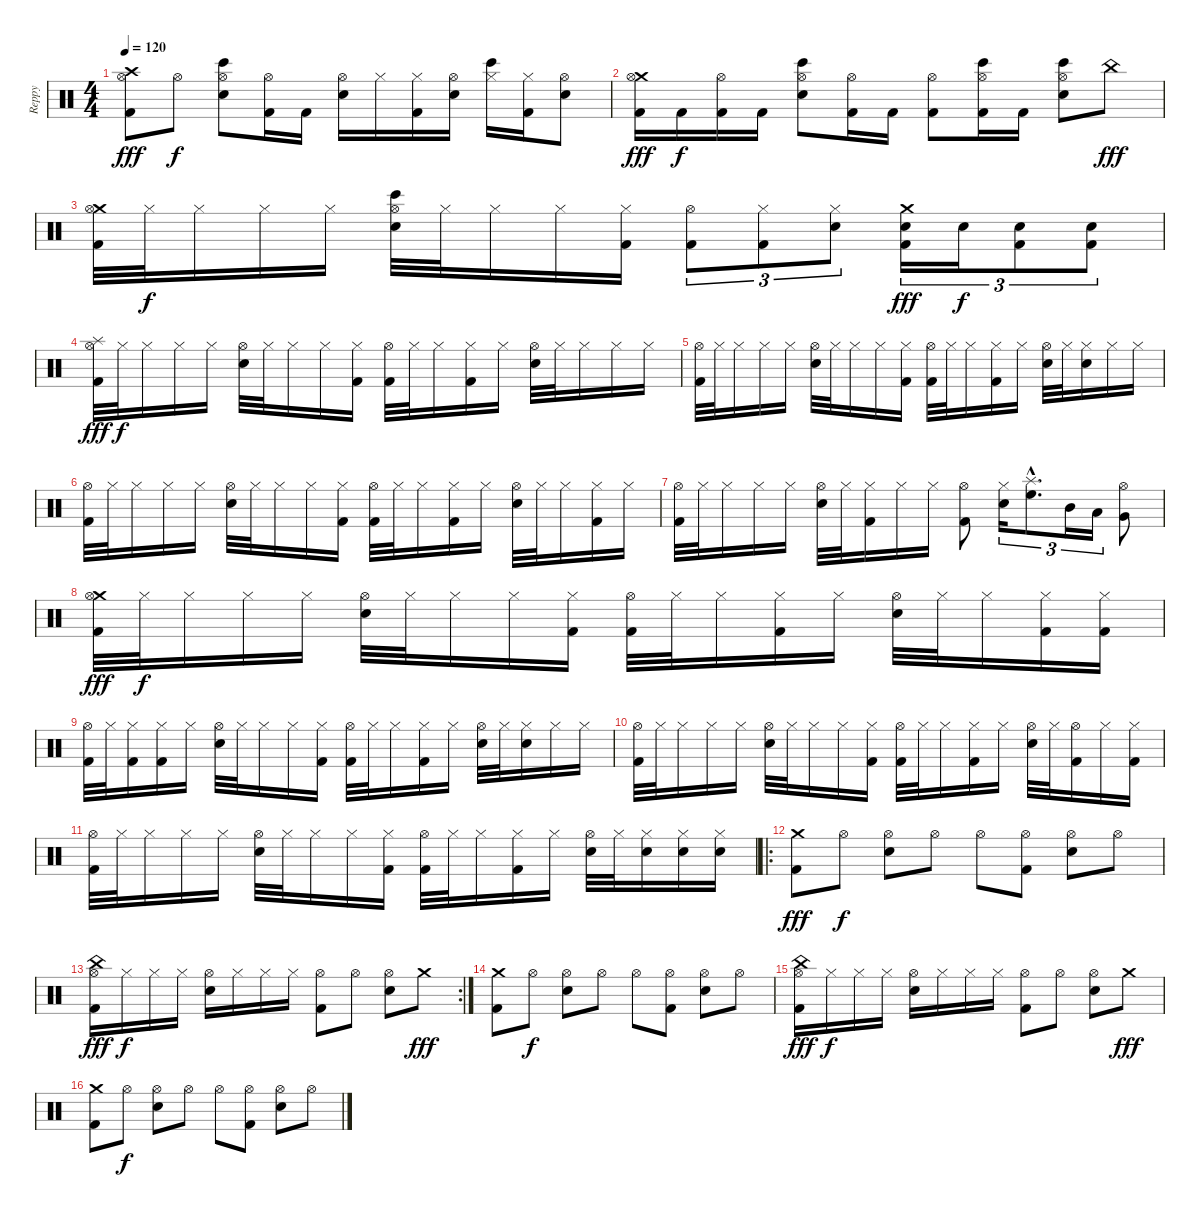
\track ("Reppy" "Reppy") {instrument percussion}
\staff {score}
\articulation defaults
\ts (4 4)
\tempo 120
\clef neutral
\ks c
("Crash high (hit)" "Hi-Hat (open)" "Kick (hit) 2").8{dy fff} "Hi-Hat (open)".8{dy f} ("Bongo High (hit)" "Hi-Hat (open)" "Electric Snare (hit)").8 ("Hi-Hat (open)" "Kick (hit) 2").16 "Kick (hit) 2".16 ("Hi-Hat (open)" "Electric Snare (hit)").16 "Hi-Hat (closed)".16 ("Hi-Hat (closed)" "Kick (hit) 2").16 ("Hi-Hat (open)" "Electric Snare (hit)").16 ("Bongo High (hit)" "Hi-Hat (closed)").16 ("Hi-Hat (closed)" "Kick (hit) 2").16 ("Hi-Hat (open)" "Electric Snare (hit)").8 |
("Crash medium (hit)" "Hi-Hat (open)" "Kick (hit) 2").16{dy fff} "Kick (hit) 2".16{dy f} ("Hi-Hat (open)" "Kick (hit) 2").16 "Kick (hit) 2".16 ("Bongo High (hit)" "Hi-Hat (open)" "Electric Snare (hit)").8 ("Hi-Hat (open)" "Kick (hit) 2").16 "Kick (hit) 2".16 ("Hi-Hat (open)" "Kick (hit) 2").8 ("Bongo High (hit)" "Hi-Hat (open)" "Kick (hit) 2").16 "Kick (hit) 2".16 ("Bongo High (hit)" "Hi-Hat (open)" "Electric Snare (hit)").8 "China (hit)".8{dy fff} |
("Crash medium (hit)" "Hi-Hat (open)" "Kick (hit) 2").32 "Hi-Hat (closed)".32{dy f} "Hi-Hat (closed)".16 "Hi-Hat (closed)".16 "Hi-Hat (closed)".16 ("Bongo High (hit)" "Hi-Hat (open)" "Electric Snare (hit)").32 "Hi-Hat (closed)".32 "Hi-Hat (closed)".16 "Hi-Hat (closed)".16 ("Hi-Hat (closed)" "Kick (hit) 2").16 ("Hi-Hat (open)" "Kick (hit) 2").8{tu (3 2)} ("Hi-Hat (closed)" "Kick (hit) 2").8{tu (3 2)} ("Hi-Hat (closed)" "Electric Snare (hit)").8{tu (3 2)} ("Crash medium (hit)" "Electric Snare (hit)" "Kick (hit) 2").16{tu (3 2) dy fff} "Electric Snare (hit)".16{tu (3 2) dy f} ("Electric Snare (hit)" "Kick (hit) 2").8{tu (3 2)} ("Electric Snare (hit)" "Kick (hit) 2").8{tu (3 2)} |
("Splash (hit)" "Hi-Hat (open)" "Kick (hit) 2").32{dy fff} "Hi-Hat (closed)".32{dy f} "Hi-Hat (closed)".16 "Hi-Hat (closed)".16 "Hi-Hat (closed)".16 ("Hi-Hat (open)" "Electric Snare (hit)").32 "Hi-Hat (closed)".32 "Hi-Hat (closed)".16 "Hi-Hat (closed)".16 ("Hi-Hat (closed)" "Kick (hit) 2").16 ("Hi-Hat (open)" "Kick (hit) 2").32 "Hi-Hat (closed)".32 "Hi-Hat (closed)".16 ("Hi-Hat (closed)" "Kick (hit) 2").16 "Hi-Hat (closed)".16 ("Hi-Hat (open)" "Electric Snare (hit)").32 "Hi-Hat (closed)".32 "Hi-Hat (closed)".16 "Hi-Hat (closed)".16 "Hi-Hat (closed)".16 |
("Hi-Hat (open)" "Kick (hit) 2").32 "Hi-Hat (closed)".32 "Hi-Hat (closed)".16 "Hi-Hat (closed)".16 "Hi-Hat (closed)".16 ("Hi-Hat (open)" "Electric Snare (hit)").32 "Hi-Hat (closed)".32 "Hi-Hat (closed)".16 "Hi-Hat (closed)".16 ("Hi-Hat (closed)" "Kick (hit) 2").16 ("Hi-Hat (open)" "Kick (hit) 2").32 "Hi-Hat (closed)".32 "Hi-Hat (closed)".16 ("Hi-Hat (closed)" "Kick (hit) 2").16 "Hi-Hat (closed)".16 ("Hi-Hat (open)" "Electric Snare (hit)").32 "Hi-Hat (closed)".32 ("Hi-Hat (closed)" "Electric Snare (hit)").16 "Hi-Hat (closed)".16 "Hi-Hat (closed)".16 |
("Hi-Hat (open)" "Kick (hit) 2").32 "Hi-Hat (closed)".32 "Hi-Hat (closed)".16 "Hi-Hat (closed)".16 "Hi-Hat (closed)".16 ("Hi-Hat (open)" "Electric Snare (hit)").32 "Hi-Hat (closed)".32 "Hi-Hat (closed)".16 "Hi-Hat (closed)".16 ("Hi-Hat (closed)" "Kick (hit) 2").16 ("Hi-Hat (open)" "Kick (hit) 2").32 "Hi-Hat (closed)".32 "Hi-Hat (closed)".16 ("Hi-Hat (closed)" "Kick (hit) 2").16 "Hi-Hat (closed)".16 ("Hi-Hat (open)" "Electric Snare (hit)").32 "Hi-Hat (closed)".32 "Hi-Hat (closed)".16 ("Hi-Hat (closed)" "Kick (hit) 2").16 "Hi-Hat (closed)".16 |
("Hi-Hat (open)" "Kick (hit) 2").32 "Hi-Hat (closed)".32 "Hi-Hat (closed)".16 "Hi-Hat (closed)".16 "Hi-Hat (closed)".16 ("Hi-Hat (open)" "Electric Snare (hit)").32 "Hi-Hat (closed)".32 ("Hi-Hat (closed)" "Kick (hit) 2").16 "Hi-Hat (closed)".16 "Hi-Hat (closed)".16 ("Hi-Hat (open)" "Kick (hit) 2").8 ("Hi-Hat (closed)" "Electric Snare (hit)").16{tu (3 2)} ("Splash (hit)"{hac} "High Floor Tom (hit)"{hac}).8{d tu (3 2)} "Mid Tom (hit)".16{tu (3 2)} "Low Tom (hit)".16{tu (3 2)} ("Hi-Hat (open)" "Very Low Tom (hit)").8 |
("Crash medium (hit)" "Hi-Hat (open)" "Kick (hit) 2").32{dy fff} "Hi-Hat (closed)".32{dy f} "Hi-Hat (closed)".16 "Hi-Hat (closed)".16 "Hi-Hat (closed)".16 ("Hi-Hat (open)" "Electric Snare (hit)").32 "Hi-Hat (closed)".32 "Hi-Hat (closed)".16 "Hi-Hat (closed)".16 ("Hi-Hat (closed)" "Kick (hit) 2").16 ("Hi-Hat (open)" "Kick (hit) 2").32 "Hi-Hat (closed)".32 "Hi-Hat (closed)".16 ("Hi-Hat (closed)" "Kick (hit) 2").16 "Hi-Hat (closed)".16 ("Hi-Hat (open)" "Electric Snare (hit)").32 "Hi-Hat (closed)".32 "Hi-Hat (closed)".16 ("Hi-Hat (closed)" "Kick (hit) 2").16 ("Hi-Hat (closed)" "Kick (hit) 2").16 |
("Hi-Hat (open)" "Kick (hit) 2").32 "Hi-Hat (closed)".32 ("Hi-Hat (closed)" "Kick (hit) 2").16 ("Hi-Hat (closed)" "Kick (hit) 2").16 "Hi-Hat (closed)".16 ("Hi-Hat (open)" "Electric Snare (hit)").32 "Hi-Hat (closed)".32 "Hi-Hat (closed)".16 "Hi-Hat (closed)".16 ("Hi-Hat (closed)" "Kick (hit) 2").16 ("Hi-Hat (open)" "Kick (hit) 2").32 "Hi-Hat (closed)".32 "Hi-Hat (closed)".16 ("Hi-Hat (closed)" "Kick (hit) 2").16 "Hi-Hat (closed)".16 ("Hi-Hat (open)" "Electric Snare (hit)").32 "Hi-Hat (closed)".32 ("Hi-Hat (closed)" "Electric Snare (hit)").16 "Hi-Hat (closed)".16 "Hi-Hat (closed)".16 |
("Hi-Hat (open)" "Kick (hit) 2").32 "Hi-Hat (closed)".32 "Hi-Hat (closed)".16 "Hi-Hat (closed)".16 "Hi-Hat (closed)".16 ("Hi-Hat (open)" "Electric Snare (hit)").32 "Hi-Hat (closed)".32 "Hi-Hat (closed)".16 "Hi-Hat (closed)".16 ("Hi-Hat (closed)" "Kick (hit) 2").16 ("Hi-Hat (open)" "Kick (hit) 2").32 "Hi-Hat (closed)".32 "Hi-Hat (closed)".16 ("Hi-Hat (closed)" "Kick (hit) 2").16 "Hi-Hat (closed)".16 ("Hi-Hat (open)" "Electric Snare (hit)").32 "Hi-Hat (closed)".32 ("Hi-Hat (open)" "Kick (hit) 2").16 "Hi-Hat (closed)".16 ("Hi-Hat (closed)" "Kick (hit) 2").16 |
("Hi-Hat (open)" "Kick (hit) 2").32 "Hi-Hat (closed)".32 "Hi-Hat (closed)".16 "Hi-Hat (closed)".16 "Hi-Hat (closed)".16 ("Hi-Hat (open)" "Electric Snare (hit)").32 "Hi-Hat (closed)".32 "Hi-Hat (closed)".16 "Hi-Hat (closed)".16 ("Hi-Hat (closed)" "Kick (hit) 2").16 ("Hi-Hat (open)" "Kick (hit) 2").32 "Hi-Hat (closed)".32 "Hi-Hat (closed)".16 ("Hi-Hat (closed)" "Kick (hit) 2").16 "Hi-Hat (closed)".16 ("Hi-Hat (open)" "Electric Snare (hit)").32 "Hi-Hat (closed)".32 ("Hi-Hat (closed)" "Electric Snare (hit)").16 ("Hi-Hat (closed)" "Electric Snare (hit)").16 ("Hi-Hat (closed)" "Electric Snare (hit)").16 |
\ro
("Crash medium (hit)" "Kick (hit) 2").8{dy fff} "Hi-Hat (open)".8{dy f} ("Hi-Hat (open)" "Electric Snare (hit)").8 "Hi-Hat (open)".8 "Hi-Hat (open)".8 ("Hi-Hat (open)" "Kick (hit) 2").8 ("Hi-Hat (open)" "Electric Snare (hit)").8 "Hi-Hat (open)".8 |
\rc 2
("China (hit)" "Hi-Hat (open)" "Kick (hit) 2").16{dy fff} "Hi-Hat (closed)".16{dy f} "Hi-Hat (closed)".16 "Hi-Hat (closed)".16 ("Hi-Hat (open)" "Electric Snare (hit)").16 "Hi-Hat (closed)".16 "Hi-Hat (closed)".16 "Hi-Hat (closed)".16 ("Hi-Hat (open)" "Kick (hit) 2").8 "Hi-Hat (open)".8 ("Hi-Hat (open)" "Electric Snare (hit)").8 "Crash medium (hit)".8{dy fff} |
("Crash medium (hit)" "Kick (hit) 2").8 "Hi-Hat (open)".8{dy f} ("Hi-Hat (open)" "Electric Snare (hit)").8 "Hi-Hat (open)".8 "Hi-Hat (open)".8 ("Hi-Hat (open)" "Kick (hit) 2").8 ("Hi-Hat (open)" "Electric Snare (hit)").8 "Hi-Hat (open)".8 |
("China (hit)" "Hi-Hat (open)" "Kick (hit) 2").16{dy fff} "Hi-Hat (closed)".16{dy f} "Hi-Hat (closed)".16 "Hi-Hat (closed)".16 ("Hi-Hat (open)" "Electric Snare (hit)").16 "Hi-Hat (closed)".16 "Hi-Hat (closed)".16 "Hi-Hat (closed)".16 ("Hi-Hat (open)" "Kick (hit) 2").8 "Hi-Hat (open)".8 ("Hi-Hat (open)" "Electric Snare (hit)").8 "Crash medium (hit)".8{dy fff} |
("Crash medium (hit)" "Kick (hit) 2").8 "Hi-Hat (open)".8{dy f} ("Hi-Hat (open)" "Electric Snare (hit)").8 "Hi-Hat (open)".8 "Hi-Hat (open)".8 ("Hi-Hat (open)" "Kick (hit) 2").8 ("Hi-Hat (open)" "Electric Snare (hit)").8 "Hi-Hat (open)".8
